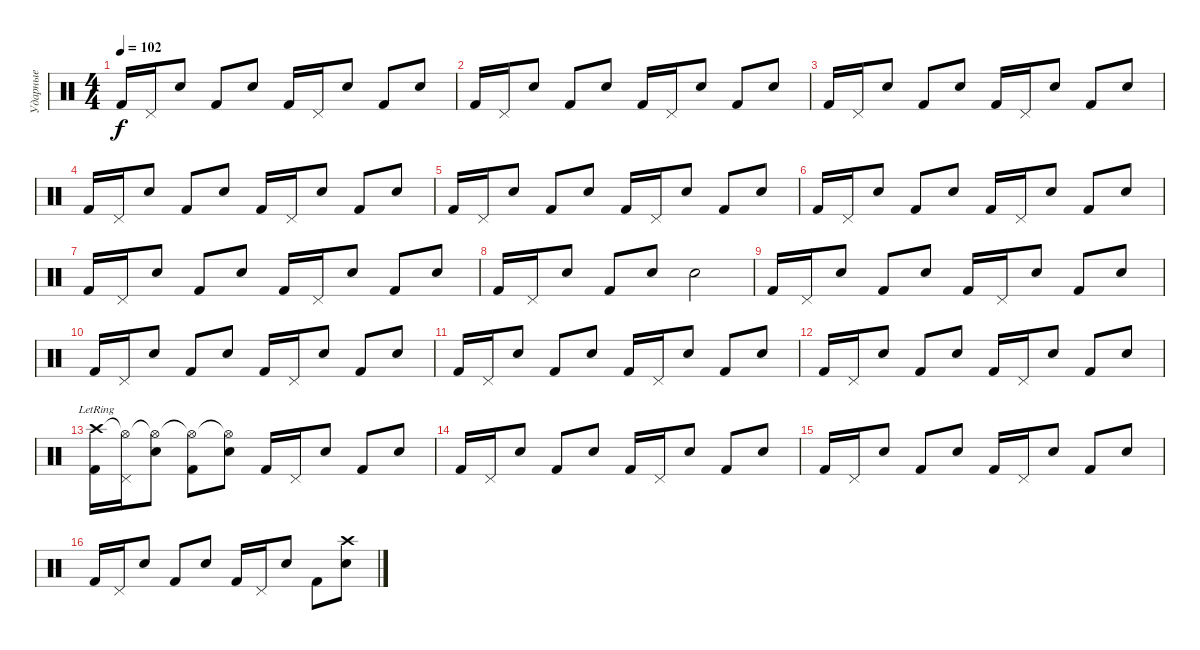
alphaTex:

\track ("Ударные" "Ударные") {instrument percussion}
\staff {score}
\articulation defaults
\ts (4 4)
\tempo 102
\clef neutral
\ks c "Kick (hit) 2".16{dy f} "Pedal Hi-Hat (hit)".16 "Snare (hit) 2".8 "Kick (hit) 2".8 "Snare (hit) 2".8 "Kick (hit) 2".16 "Pedal Hi-Hat (hit)".16 "Snare (hit) 2".8 "Kick (hit) 2".8 "Snare (hit) 2".8
|
"Kick (hit) 2".16 "Pedal Hi-Hat (hit)".16 "Snare (hit) 2".8 "Kick (hit) 2".8 "Snare (hit) 2".8 "Kick (hit) 2".16 "Pedal Hi-Hat (hit)".16 "Snare (hit) 2".8 "Kick (hit) 2".8 "Snare (hit) 2".8 |
"Kick (hit) 2".16 "Pedal Hi-Hat (hit)".16 "Snare (hit) 2".8 "Kick (hit) 2".8 "Snare (hit) 2".8 "Kick (hit) 2".16 "Pedal Hi-Hat (hit)".16 "Snare (hit) 2".8 "Kick (hit) 2".8 "Snare (hit) 2".8 |
"Kick (hit) 2".16 "Pedal Hi-Hat (hit)".16 "Snare (hit) 2".8 "Kick (hit) 2".8 "Snare (hit) 2".8 "Kick (hit) 2".16 "Pedal Hi-Hat (hit)".16 "Snare (hit) 2".8 "Kick (hit) 2".8 "Snare (hit) 2".8 |
"Kick (hit) 2".16 "Pedal Hi-Hat (hit)".16 "Snare (hit) 2".8 "Kick (hit) 2".8 "Snare (hit) 2".8 "Kick (hit) 2".16 "Pedal Hi-Hat (hit)".16 "Snare (hit) 2".8 "Kick (hit) 2".8 "Snare (hit) 2".8 |
"Kick (hit) 2".16 "Pedal Hi-Hat (hit)".16 "Snare (hit) 2".8 "Kick (hit) 2".8 "Snare (hit) 2".8 "Kick (hit) 2".16 "Pedal Hi-Hat (hit)".16 "Snare (hit) 2".8 "Kick (hit) 2".8 "Snare (hit) 2".8 |
"Kick (hit) 2".16 "Pedal Hi-Hat (hit)".16 "Snare (hit) 2".8 "Kick (hit) 2".8 "Snare (hit) 2".8 "Kick (hit) 2".16 "Pedal Hi-Hat (hit)".16 "Snare (hit) 2".8 "Kick (hit) 2".8 "Snare (hit) 2".8 |
"Kick (hit) 2".16 "Pedal Hi-Hat (hit)".16 "Snare (hit) 2".8 "Kick (hit) 2".8 "Snare (hit) 2".8 "Snare (hit) 2".2 |
"Kick (hit) 2".16 "Pedal Hi-Hat (hit)".16 "Snare (hit) 2".8 "Kick (hit) 2".8 "Snare (hit) 2".8 "Kick (hit) 2".16 "Pedal Hi-Hat (hit)".16 "Snare (hit) 2".8 "Kick (hit) 2".8 "Snare (hit) 2".8 |
"Kick (hit) 2".16 "Pedal Hi-Hat (hit)".16 "Snare (hit) 2".8 "Kick (hit) 2".8 "Snare (hit) 2".8 "Kick (hit) 2".16 "Pedal Hi-Hat (hit)".16 "Snare (hit) 2".8 "Kick (hit) 2".8 "Snare (hit) 2".8 |
"Kick (hit) 2".16 "Pedal Hi-Hat (hit)".16 "Snare (hit) 2".8 "Kick (hit) 2".8 "Snare (hit) 2".8 "Kick (hit) 2".16 "Pedal Hi-Hat (hit)".16 "Snare (hit) 2".8 "Kick (hit) 2".8 "Snare (hit) 2".8 |
"Kick (hit) 2".16 "Pedal Hi-Hat (hit)".16 "Snare (hit) 2".8 "Kick (hit) 2".8 "Snare (hit) 2".8 "Kick (hit) 2".16 "Pedal Hi-Hat (hit)".16 "Snare (hit) 2".8 "Kick (hit) 2".8 "Snare (hit) 2".8 |
("Crash high (hit)"{lr} "Kick (hit) 2").16 ("Hi-Hat (open)"{t} "Pedal Hi-Hat (hit)").16 ("Hi-Hat (open)"{t} "Snare (hit) 2").8 ("Hi-Hat (open)"{t} "Kick (hit) 2").8 ("Hi-Hat (open)"{t} "Snare (hit) 2").8 "Kick (hit) 2".16 "Pedal Hi-Hat (hit)".16 "Snare (hit) 2".8 "Kick (hit) 2".8 "Snare (hit) 2".8 |
"Kick (hit) 2".16 "Pedal Hi-Hat (hit)".16 "Snare (hit) 2".8 "Kick (hit) 2".8 "Snare (hit) 2".8 "Kick (hit) 2".16 "Pedal Hi-Hat (hit)".16 "Snare (hit) 2".8 "Kick (hit) 2".8 "Snare (hit) 2".8 |
"Kick (hit) 2".16 "Pedal Hi-Hat (hit)".16 "Snare (hit) 2".8 "Kick (hit) 2".8 "Snare (hit) 2".8 "Kick (hit) 2".16 "Pedal Hi-Hat (hit)".16 "Snare (hit) 2".8 "Kick (hit) 2".8 "Snare (hit) 2".8 |
"Kick (hit) 2".16 "Pedal Hi-Hat (hit)".16 "Snare (hit) 2".8 "Kick (hit) 2".8 "Snare (hit) 2".8 "Kick (hit) 2".16 "Pedal Hi-Hat (hit)".16 "Snare (hit) 2".8 "Kick (hit) 2".8 ("Crash high (hit)" "Snare (hit) 2").8
